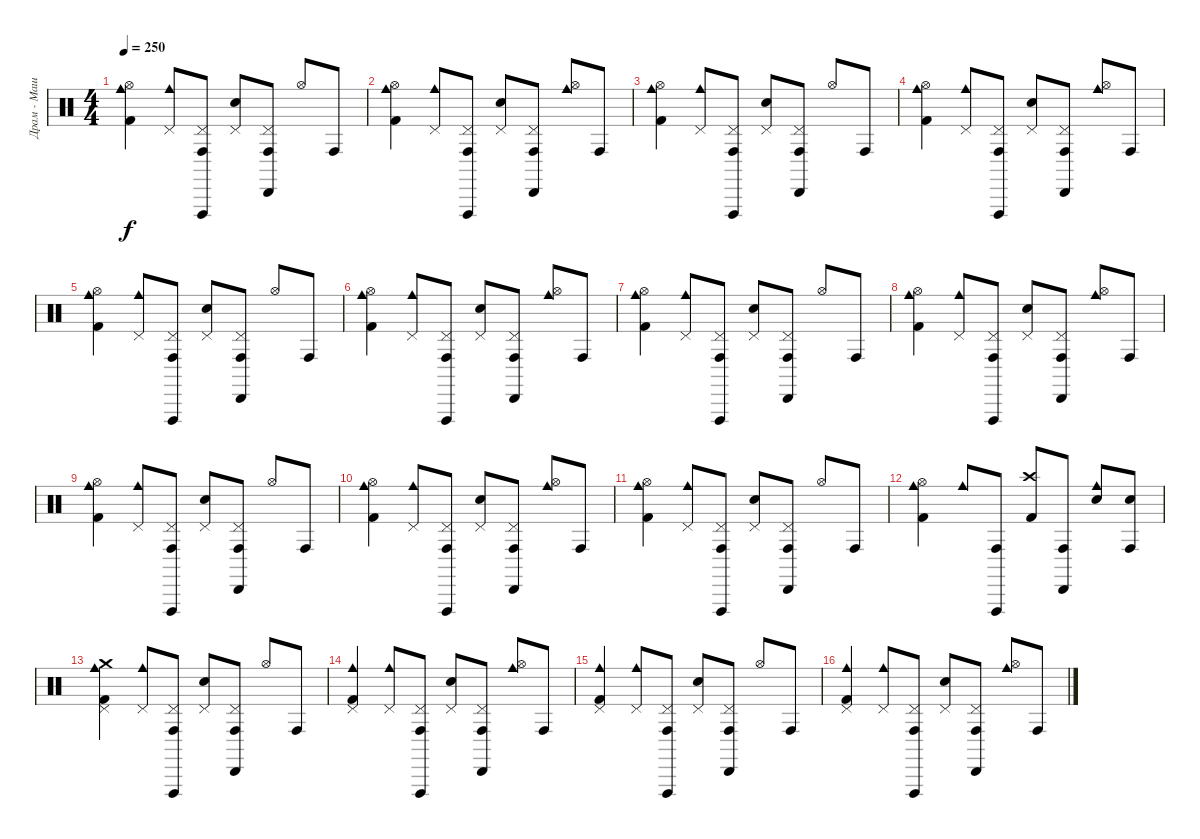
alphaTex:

\track ("Драм - Машина" "Драм - Маш") {instrument percussion}
\staff {score}
\articulation defaults
\ts (4 4)
\tempo 250
\clef neutral
\ks c
("Cowbell medium (hit)" "Hi-Hat (open)" "Kick (hit) 2").4{dy f} ("Cowbell medium (hit)" "Pedal Hi-Hat (hit)").8 ("Conga high (hit)" "Vibraslap (hit)" "Pedal Hi-Hat (hit)").8 ("Pedal Hi-Hat (hit)" "Snare (hit) 2").8 ("Cabasa (hit)" "Conga high (hit)" "Pedal Hi-Hat (hit)").8 "Hi-Hat (open)".8 "Conga high (hit)".8 |
("Cowbell medium (hit)" "Hi-Hat (open)" "Kick (hit) 2").4 ("Cowbell medium (hit)" "Pedal Hi-Hat (hit)").8 ("Conga high (hit)" "Vibraslap (hit)" "Pedal Hi-Hat (hit)").8 ("Pedal Hi-Hat (hit)" "Snare (hit) 2").8 ("Cabasa (hit)" "Conga high (hit)" "Pedal Hi-Hat (hit)").8 ("Cowbell medium (hit)" "Hi-Hat (open)").8 "Conga high (hit)".8 |
("Cowbell medium (hit)" "Hi-Hat (open)" "Kick (hit) 2").4 ("Cowbell medium (hit)" "Pedal Hi-Hat (hit)").8 ("Conga high (hit)" "Vibraslap (hit)" "Pedal Hi-Hat (hit)").8 ("Pedal Hi-Hat (hit)" "Snare (hit) 2").8 ("Cabasa (hit)" "Conga high (hit)" "Pedal Hi-Hat (hit)").8 "Hi-Hat (open)".8 "Conga high (hit)".8 |
("Cowbell medium (hit)" "Hi-Hat (open)" "Kick (hit) 2").4 ("Cowbell medium (hit)" "Pedal Hi-Hat (hit)").8 ("Conga high (hit)" "Vibraslap (hit)" "Pedal Hi-Hat (hit)").8 ("Pedal Hi-Hat (hit)" "Snare (hit) 2").8 ("Cabasa (hit)" "Conga high (hit)" "Pedal Hi-Hat (hit)").8 ("Cowbell medium (hit)" "Hi-Hat (open)").8 "Conga high (hit)".8 |
("Cowbell medium (hit)" "Hi-Hat (open)" "Kick (hit) 2").4 ("Cowbell medium (hit)" "Pedal Hi-Hat (hit)").8 ("Conga high (hit)" "Vibraslap (hit)" "Pedal Hi-Hat (hit)").8 ("Pedal Hi-Hat (hit)" "Snare (hit) 2").8 ("Cabasa (hit)" "Conga high (hit)" "Pedal Hi-Hat (hit)").8 "Hi-Hat (open)".8 "Conga high (hit)".8 |
("Cowbell medium (hit)" "Hi-Hat (open)" "Kick (hit) 2").4 ("Cowbell medium (hit)" "Pedal Hi-Hat (hit)").8 ("Conga high (hit)" "Vibraslap (hit)" "Pedal Hi-Hat (hit)").8 ("Pedal Hi-Hat (hit)" "Snare (hit) 2").8 ("Cabasa (hit)" "Conga high (hit)" "Pedal Hi-Hat (hit)").8 ("Cowbell medium (hit)" "Hi-Hat (open)").8 "Conga high (hit)".8 |
("Cowbell medium (hit)" "Hi-Hat (open)" "Kick (hit) 2").4 ("Cowbell medium (hit)" "Pedal Hi-Hat (hit)").8 ("Conga high (hit)" "Vibraslap (hit)" "Pedal Hi-Hat (hit)").8 ("Pedal Hi-Hat (hit)" "Snare (hit) 2").8 ("Cabasa (hit)" "Conga high (hit)" "Pedal Hi-Hat (hit)").8 "Hi-Hat (open)".8 "Conga high (hit)".8 |
("Cowbell medium (hit)" "Hi-Hat (open)" "Kick (hit) 2").4 ("Cowbell medium (hit)" "Pedal Hi-Hat (hit)").8 ("Conga high (hit)" "Vibraslap (hit)" "Pedal Hi-Hat (hit)").8 ("Pedal Hi-Hat (hit)" "Snare (hit) 2").8 ("Cabasa (hit)" "Conga high (hit)" "Pedal Hi-Hat (hit)").8 ("Cowbell medium (hit)" "Hi-Hat (open)").8 "Conga high (hit)".8 |
("Cowbell medium (hit)" "Hi-Hat (open)" "Kick (hit) 2").4 ("Cowbell medium (hit)" "Pedal Hi-Hat (hit)").8 ("Conga high (hit)" "Vibraslap (hit)" "Pedal Hi-Hat (hit)").8 ("Pedal Hi-Hat (hit)" "Snare (hit) 2").8 ("Cabasa (hit)" "Conga high (hit)" "Pedal Hi-Hat (hit)").8 "Hi-Hat (open)".8 "Conga high (hit)".8 |
("Cowbell medium (hit)" "Hi-Hat (open)" "Kick (hit) 2").4 ("Cowbell medium (hit)" "Pedal Hi-Hat (hit)").8 ("Conga high (hit)" "Vibraslap (hit)" "Pedal Hi-Hat (hit)").8 ("Pedal Hi-Hat (hit)" "Snare (hit) 2").8 ("Cabasa (hit)" "Conga high (hit)" "Pedal Hi-Hat (hit)").8 ("Cowbell medium (hit)" "Hi-Hat (open)").8 "Conga high (hit)".8 |
("Cowbell medium (hit)" "Hi-Hat (open)" "Kick (hit) 2").4 ("Cowbell medium (hit)" "Pedal Hi-Hat (hit)").8 ("Conga high (hit)" "Vibraslap (hit)" "Pedal Hi-Hat (hit)").8 ("Pedal Hi-Hat (hit)" "Snare (hit) 2").8 ("Cabasa (hit)" "Conga high (hit)" "Pedal Hi-Hat (hit)").8 "Hi-Hat (open)".8 "Conga high (hit)".8 |
("Cowbell medium (hit)" "Hi-Hat (open)" "Kick (hit) 2").4 "Cowbell medium (hit)".8 ("Conga high (hit)" "Vibraslap (hit)").8 ("Crash high (hit)" "Kick (hit) 2").8 ("Cabasa (hit)" "Conga high (hit)").8 ("Cowbell medium (hit)" "Electric Snare (hit)").8 ("Conga high (hit)" "Electric Snare (hit)").8 |
("Cowbell medium (hit)" "Crash medium (hit)" "Pedal Hi-Hat (hit)" "Kick (hit) 2").4 ("Cowbell medium (hit)" "Pedal Hi-Hat (hit)").8 ("Conga high (hit)" "Vibraslap (hit)" "Pedal Hi-Hat (hit)").8 ("Pedal Hi-Hat (hit)" "Snare (hit) 2").8 ("Cabasa (hit)" "Conga high (hit)" "Pedal Hi-Hat (hit)").8 "Hi-Hat (open)".8 "Conga high (hit)".8 |
("Cowbell medium (hit)" "Pedal Hi-Hat (hit)" "Kick (hit) 2").4 ("Cowbell medium (hit)" "Pedal Hi-Hat (hit)").8 ("Conga high (hit)" "Vibraslap (hit)" "Pedal Hi-Hat (hit)").8 ("Pedal Hi-Hat (hit)" "Snare (hit) 2").8 ("Cabasa (hit)" "Conga high (hit)" "Pedal Hi-Hat (hit)").8 ("Cowbell medium (hit)" "Hi-Hat (open)").8 "Conga high (hit)".8 |
("Cowbell medium (hit)" "Pedal Hi-Hat (hit)" "Kick (hit) 2").4 ("Cowbell medium (hit)" "Pedal Hi-Hat (hit)").8 ("Conga high (hit)" "Vibraslap (hit)" "Pedal Hi-Hat (hit)").8 ("Pedal Hi-Hat (hit)" "Snare (hit) 2").8 ("Cabasa (hit)" "Conga high (hit)" "Pedal Hi-Hat (hit)").8 "Hi-Hat (open)".8 "Conga high (hit)".8 |
("Cowbell medium (hit)" "Pedal Hi-Hat (hit)" "Kick (hit) 2").4 ("Cowbell medium (hit)" "Pedal Hi-Hat (hit)").8 ("Conga high (hit)" "Vibraslap (hit)" "Pedal Hi-Hat (hit)").8 ("Pedal Hi-Hat (hit)" "Snare (hit) 2").8 ("Cabasa (hit)" "Conga high (hit)" "Pedal Hi-Hat (hit)").8 ("Cowbell medium (hit)" "Hi-Hat (open)").8 "Conga high (hit)".8
